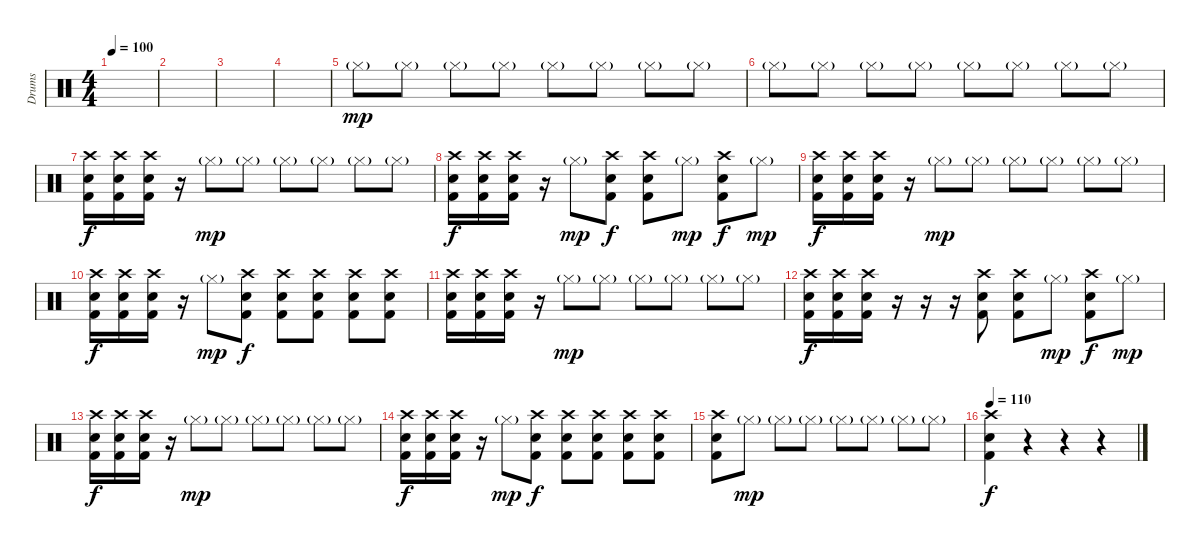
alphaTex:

\track ("Drums" "Drums") {instrument percussion}
\staff {score}
\articulation defaults
\ts (4 4)
\tempo 100
\clef neutral
\ks c
|
|
|
|
"Hi-Hat (closed)"{g}.8{dy mp} "Hi-Hat (closed)"{g}.8 "Hi-Hat (closed)"{g}.8 "Hi-Hat (closed)"{g}.8 "Hi-Hat (closed)"{g}.8 "Hi-Hat (closed)"{g}.8 "Hi-Hat (closed)"{g}.8 "Hi-Hat (closed)"{g}.8 |
"Hi-Hat (closed)"{g}.8 "Hi-Hat (closed)"{g}.8 "Hi-Hat (closed)"{g}.8 "Hi-Hat (closed)"{g}.8 "Hi-Hat (closed)"{g}.8 "Hi-Hat (closed)"{g}.8 "Hi-Hat (closed)"{g}.8 "Hi-Hat (closed)"{g}.8 |
("Electric Snare (hit)" "Kick (hit) 2" "Crash high (hit)").16{dy f} ("Electric Snare (hit)" "Kick (hit) 2" "Crash high (hit)").16 ("Electric Snare (hit)" "Kick (hit) 2" "Crash high (hit)").16 r.16 "Hi-Hat (closed)"{g}.8{dy mp} "Hi-Hat (closed)"{g}.8 "Hi-Hat (closed)"{g}.8 "Hi-Hat (closed)"{g}.8 "Hi-Hat (closed)"{g}.8 "Hi-Hat (closed)"{g}.8 |
("Electric Snare (hit)" "Kick (hit) 2" "Crash high (hit)").16{dy f} ("Electric Snare (hit)" "Kick (hit) 2" "Crash high (hit)").16 ("Electric Snare (hit)" "Kick (hit) 2" "Crash high (hit)").16 r.16 "Hi-Hat (closed)"{g}.8{dy mp} ("Electric Snare (hit)" "Kick (hit) 2" "Crash high (hit)").8{dy f} ("Electric Snare (hit)" "Kick (hit) 2" "Crash high (hit)").8 "Hi-Hat (closed)"{g}.8{dy mp} ("Electric Snare (hit)" "Kick (hit) 2" "Crash high (hit)").8{dy f} "Hi-Hat (closed)"{g}.8{dy mp} |
("Electric Snare (hit)" "Kick (hit) 2" "Crash high (hit)").16{dy f} ("Electric Snare (hit)" "Kick (hit) 2" "Crash high (hit)").16 ("Electric Snare (hit)" "Kick (hit) 2" "Crash high (hit)").16 r.16 "Hi-Hat (closed)"{g}.8{dy mp} "Hi-Hat (closed)"{g}.8 "Hi-Hat (closed)"{g}.8 "Hi-Hat (closed)"{g}.8 "Hi-Hat (closed)"{g}.8 "Hi-Hat (closed)"{g}.8 |
("Electric Snare (hit)" "Kick (hit) 2" "Crash high (hit)").16{dy f} ("Electric Snare (hit)" "Kick (hit) 2" "Crash high (hit)").16 ("Electric Snare (hit)" "Kick (hit) 2" "Crash high (hit)").16 r.16 "Hi-Hat (closed)"{g}.8{dy mp} ("Electric Snare (hit)" "Kick (hit) 2" "Crash high (hit)").8{dy f} ("Electric Snare (hit)" "Kick (hit) 2" "Crash high (hit)").8 ("Electric Snare (hit)" "Kick (hit) 2" "Crash high (hit)").8 ("Electric Snare (hit)" "Kick (hit) 2" "Crash high (hit)").8 ("Electric Snare (hit)" "Kick (hit) 2" "Crash high (hit)").8 |
("Electric Snare (hit)" "Kick (hit) 2" "Crash high (hit)").16 ("Electric Snare (hit)" "Kick (hit) 2" "Crash high (hit)").16 ("Electric Snare (hit)" "Kick (hit) 2" "Crash high (hit)").16 r.16 "Hi-Hat (closed)"{g}.8{dy mp} "Hi-Hat (closed)"{g}.8 "Hi-Hat (closed)"{g}.8 "Hi-Hat (closed)"{g}.8 "Hi-Hat (closed)"{g}.8 "Hi-Hat (closed)"{g}.8 |
("Electric Snare (hit)" "Kick (hit) 2" "Crash high (hit)").16{dy f} ("Electric Snare (hit)" "Kick (hit) 2" "Crash high (hit)").16 ("Electric Snare (hit)" "Kick (hit) 2" "Crash high (hit)").16 r.16 r.16 r.16 ("Electric Snare (hit)" "Kick (hit) 2" "Crash high (hit)").8 ("Electric Snare (hit)" "Kick (hit) 2" "Crash high (hit)").8 "Hi-Hat (closed)"{g}.8{dy mp} ("Electric Snare (hit)" "Kick (hit) 2" "Crash high (hit)").8{dy f} "Hi-Hat (closed)"{g}.8{dy mp} |
("Electric Snare (hit)" "Kick (hit) 2" "Crash high (hit)").16{dy f} ("Electric Snare (hit)" "Kick (hit) 2" "Crash high (hit)").16 ("Electric Snare (hit)" "Kick (hit) 2" "Crash high (hit)").16 r.16 "Hi-Hat (closed)"{g}.8{dy mp} "Hi-Hat (closed)"{g}.8 "Hi-Hat (closed)"{g}.8 "Hi-Hat (closed)"{g}.8 "Hi-Hat (closed)"{g}.8 "Hi-Hat (closed)"{g}.8 |
("Electric Snare (hit)" "Kick (hit) 2" "Crash high (hit)").16{dy f} ("Electric Snare (hit)" "Kick (hit) 2" "Crash high (hit)").16 ("Electric Snare (hit)" "Kick (hit) 2" "Crash high (hit)").16 r.16 "Hi-Hat (closed)"{g}.8{dy mp} ("Electric Snare (hit)" "Kick (hit) 2" "Crash high (hit)").8{dy f} ("Electric Snare (hit)" "Kick (hit) 2" "Crash high (hit)").8 ("Electric Snare (hit)" "Kick (hit) 2" "Crash high (hit)").8 ("Electric Snare (hit)" "Kick (hit) 2" "Crash high (hit)").8 ("Electric Snare (hit)" "Kick (hit) 2" "Crash high (hit)").8 |
("Electric Snare (hit)" "Kick (hit) 2" "Crash high (hit)").8 "Hi-Hat (closed)"{g}.8{dy mp} "Hi-Hat (closed)"{g}.8 "Hi-Hat (closed)"{g}.8 "Hi-Hat (closed)"{g}.8 "Hi-Hat (closed)"{g}.8 "Hi-Hat (closed)"{g}.8 "Hi-Hat (closed)"{g}.8 |
\tempo 110
("Crash high (hit)" "Kick (hit) 2" "Electric Snare (hit)").4{dy f} r.4 r.4 r.4
